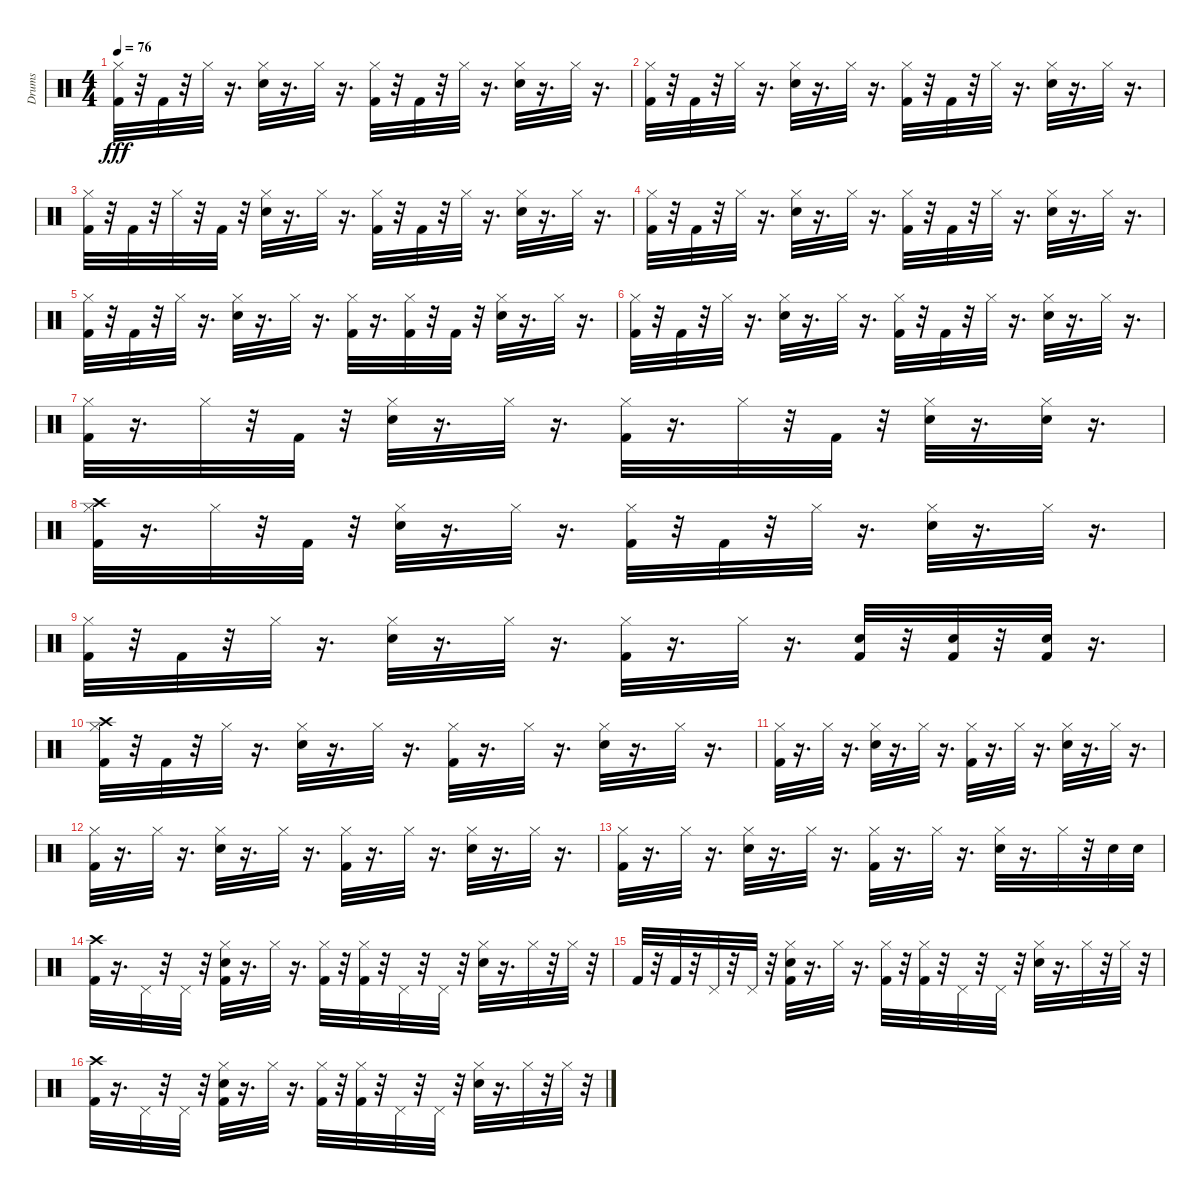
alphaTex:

\track ("Drums" "Drums") {instrument percussion}
\staff {score}
\articulation defaults
\ts (4 4)
\tempo 76
\clef neutral
\ks c
("Kick (hit) 2" "Hi-Hat (closed)").32{dy fff} r.32 "Kick (hit) 2".32 r.32 "Hi-Hat (closed)".32 r.16{d} ("Electric Snare (hit)" "Hi-Hat (closed)").32 r.16{d} "Hi-Hat (closed)".32 r.16{d} ("Kick (hit) 2" "Hi-Hat (closed)").32 r.32 "Kick (hit) 2".32 r.32 "Hi-Hat (closed)".32 r.16{d} ("Electric Snare (hit)" "Hi-Hat (closed)").32 r.16{d} "Hi-Hat (closed)".32 r.16{d} |
("Hi-Hat (closed)" "Kick (hit) 2").32 r.32 "Kick (hit) 2".32 r.32 "Hi-Hat (closed)".32 r.16{d} ("Hi-Hat (closed)" "Electric Snare (hit)").32 r.16{d} "Hi-Hat (closed)".32 r.16{d} ("Hi-Hat (closed)" "Kick (hit) 2").32 r.32 "Kick (hit) 2".32 r.32 "Hi-Hat (closed)".32 r.16{d} ("Hi-Hat (closed)" "Electric Snare (hit)").32 r.16{d} "Hi-Hat (closed)".32 r.16{d} |
("Kick (hit) 2" "Hi-Hat (closed)").32 r.32 "Kick (hit) 2".32 r.32 "Hi-Hat (closed)".32 r.32 "Kick (hit) 2".32 r.32 ("Electric Snare (hit)" "Hi-Hat (closed)").32 r.16{d} "Hi-Hat (closed)".32 r.16{d} ("Kick (hit) 2" "Hi-Hat (closed)").32 r.32 "Kick (hit) 2".32 r.32 "Hi-Hat (closed)".32 r.16{d} ("Electric Snare (hit)" "Hi-Hat (closed)").32 r.16{d} "Hi-Hat (closed)".32 r.16{d} |
("Hi-Hat (closed)" "Kick (hit) 2").32 r.32 "Kick (hit) 2".32 r.32 "Hi-Hat (closed)".32 r.16{d} ("Hi-Hat (closed)" "Electric Snare (hit)").32 r.16{d} "Hi-Hat (closed)".32 r.16{d} ("Hi-Hat (closed)" "Kick (hit) 2").32 r.32 "Kick (hit) 2".32 r.32 "Hi-Hat (closed)".32 r.16{d} ("Hi-Hat (closed)" "Electric Snare (hit)").32 r.16{d} "Hi-Hat (closed)".32 r.16{d} |
("Kick (hit) 2" "Hi-Hat (closed)").32 r.32 "Kick (hit) 2".32 r.32 "Hi-Hat (closed)".32 r.16{d} ("Electric Snare (hit)" "Hi-Hat (closed)").32 r.16{d} "Hi-Hat (closed)".32 r.16{d} ("Kick (hit) 2" "Hi-Hat (closed)").32 r.16{d} ("Kick (hit) 2" "Hi-Hat (closed)").32 r.32 "Kick (hit) 2".32 r.32 ("Electric Snare (hit)" "Hi-Hat (closed)").32 r.16{d} "Hi-Hat (closed)".32 r.16{d} |
("Hi-Hat (closed)" "Kick (hit) 2").32 r.32 "Kick (hit) 2".32 r.32 "Hi-Hat (closed)".32 r.16{d} ("Hi-Hat (closed)" "Electric Snare (hit)").32 r.16{d} "Hi-Hat (closed)".32 r.16{d} ("Hi-Hat (closed)" "Kick (hit) 2").32 r.32 "Kick (hit) 2".32 r.32 "Hi-Hat (closed)".32 r.16{d} ("Hi-Hat (closed)" "Electric Snare (hit)").32 r.16{d} "Hi-Hat (closed)".32 r.16{d} |
("Kick (hit) 2" "Hi-Hat (closed)").32 r.16{d} "Hi-Hat (closed)".32 r.32 "Kick (hit) 2".32 r.32 ("Electric Snare (hit)" "Hi-Hat (closed)").32 r.16{d} "Hi-Hat (closed)".32 r.16{d} ("Kick (hit) 2" "Hi-Hat (closed)").32 r.16{d} "Hi-Hat (closed)".32 r.32 "Kick (hit) 2".32 r.32 ("Electric Snare (hit)" "Hi-Hat (closed)").32 r.16{d} ("Electric Snare (hit)" "Hi-Hat (closed)").32 r.16{d} |
("Crash high (hit)" "Hi-Hat (closed)" "Kick (hit) 2").32 r.16{d} "Hi-Hat (closed)".32 r.32 "Kick (hit) 2".32 r.32 ("Hi-Hat (closed)" "Electric Snare (hit)").32 r.16{d} "Hi-Hat (closed)".32 r.16{d} ("Hi-Hat (closed)" "Kick (hit) 2").32 r.32 "Kick (hit) 2".32 r.32 "Hi-Hat (closed)".32 r.16{d} ("Hi-Hat (closed)" "Electric Snare (hit)").32 r.16{d} "Hi-Hat (closed)".32 r.16{d} |
("Kick (hit) 2" "Hi-Hat (closed)").32 r.32 "Kick (hit) 2".32 r.32 "Hi-Hat (closed)".32 r.16{d} ("Electric Snare (hit)" "Hi-Hat (closed)").32 r.16{d} "Hi-Hat (closed)".32 r.16{d} ("Kick (hit) 2" "Hi-Hat (closed)").32 r.16{d} "Hi-Hat (closed)".32 r.16{d} ("Kick (hit) 2" "Electric Snare (hit)").32 r.32 ("Kick (hit) 2" "Electric Snare (hit)").32 r.32 ("Kick (hit) 2" "Electric Snare (hit)").32 r.16{d} |
("Crash high (hit)" "Hi-Hat (closed)" "Kick (hit) 2").32 r.32 "Kick (hit) 2".32 r.32 "Hi-Hat (closed)".32 r.16{d} ("Hi-Hat (closed)" "Electric Snare (hit)").32 r.16{d} "Hi-Hat (closed)".32 r.16{d} ("Kick (hit) 2" "Hi-Hat (closed)").32 r.16{d} "Hi-Hat (closed)".32 r.16{d} ("Hi-Hat (closed)" "Electric Snare (hit)").32 r.16{d} "Hi-Hat (closed)".32 r.16{d} |
("Kick (hit) 2" "Hi-Hat (closed)").32 r.16{d} "Hi-Hat (closed)".32 r.16{d} ("Electric Snare (hit)" "Hi-Hat (closed)").32 r.16{d} "Hi-Hat (closed)".32 r.16{d} ("Kick (hit) 2" "Hi-Hat (closed)").32 r.16{d} "Hi-Hat (closed)".32 r.16{d} ("Hi-Hat (closed)" "Electric Snare (hit)").32 r.16{d} "Hi-Hat (closed)".32 r.16{d} |
("Hi-Hat (closed)" "Kick (hit) 2").32 r.16{d} "Hi-Hat (closed)".32 r.16{d} ("Hi-Hat (closed)" "Electric Snare (hit)").32 r.16{d} "Hi-Hat (closed)".32 r.16{d} ("Kick (hit) 2" "Hi-Hat (closed)").32 r.16{d} "Hi-Hat (closed)".32 r.16{d} ("Hi-Hat (closed)" "Electric Snare (hit)").32 r.16{d} "Hi-Hat (closed)".32 r.16{d} |
("Kick (hit) 2" "Hi-Hat (closed)").32 r.16{d} "Hi-Hat (closed)".32 r.16{d} ("Electric Snare (hit)" "Hi-Hat (closed)").32 r.16{d} "Hi-Hat (closed)".32 r.16{d} ("Kick (hit) 2" "Hi-Hat (closed)").32 r.16{d} "Hi-Hat (closed)".32 r.16{d} ("Hi-Hat (closed)" "Electric Snare (hit)").32 r.16{d} "Hi-Hat (closed)".32 r.32 "Electric Snare (hit)".32 "Electric Snare (hit)".32 |
("Crash high (hit)" "Kick (hit) 2").32 r.16{d} "Pedal Hi-Hat (hit)".32 r.32 "Pedal Hi-Hat (hit)".32 r.32 ("Hi-Hat (closed)" "Kick (hit) 2" "Electric Snare (hit)").32 r.16{d} "Hi-Hat (closed)".32 r.16{d} ("Hi-Hat (closed)" "Kick (hit) 2").32 r.32 ("Hi-Hat (closed)" "Kick (hit) 2").32 r.32 "Pedal Hi-Hat (hit)".32 r.32 "Pedal Hi-Hat (hit)".32 r.32 ("Hi-Hat (closed)" "Electric Snare (hit)").32 r.16{d} "Hi-Hat (closed)".32 r.32 "Hi-Hat (closed)".32 r.32 |
"Kick (hit) 2".32 r.32 "Kick (hit) 2".32 r.32 "Pedal Hi-Hat (hit)".32 r.32 "Pedal Hi-Hat (hit)".32 r.32 ("Hi-Hat (closed)" "Kick (hit) 2" "Electric Snare (hit)").32 r.16{d} "Hi-Hat (closed)".32 r.16{d} ("Hi-Hat (closed)" "Kick (hit) 2").32 r.32 ("Hi-Hat (closed)" "Kick (hit) 2").32 r.32 "Pedal Hi-Hat (hit)".32 r.32 "Pedal Hi-Hat (hit)".32 r.32 ("Hi-Hat (closed)" "Electric Snare (hit)").32 r.16{d} "Hi-Hat (closed)".32 r.32 "Hi-Hat (closed)".32 r.32 |
("Crash high (hit)" "Kick (hit) 2").32 r.16{d} "Pedal Hi-Hat (hit)".32 r.32 "Pedal Hi-Hat (hit)".32 r.32 ("Hi-Hat (closed)" "Kick (hit) 2" "Electric Snare (hit)").32 r.16{d} "Hi-Hat (closed)".32 r.16{d} ("Hi-Hat (closed)" "Kick (hit) 2").32 r.32 ("Hi-Hat (closed)" "Kick (hit) 2").32 r.32 "Pedal Hi-Hat (hit)".32 r.32 "Pedal Hi-Hat (hit)".32 r.32 ("Hi-Hat (closed)" "Electric Snare (hit)").32 r.16{d} "Hi-Hat (closed)".32 r.32 "Hi-Hat (closed)".32 r.32
